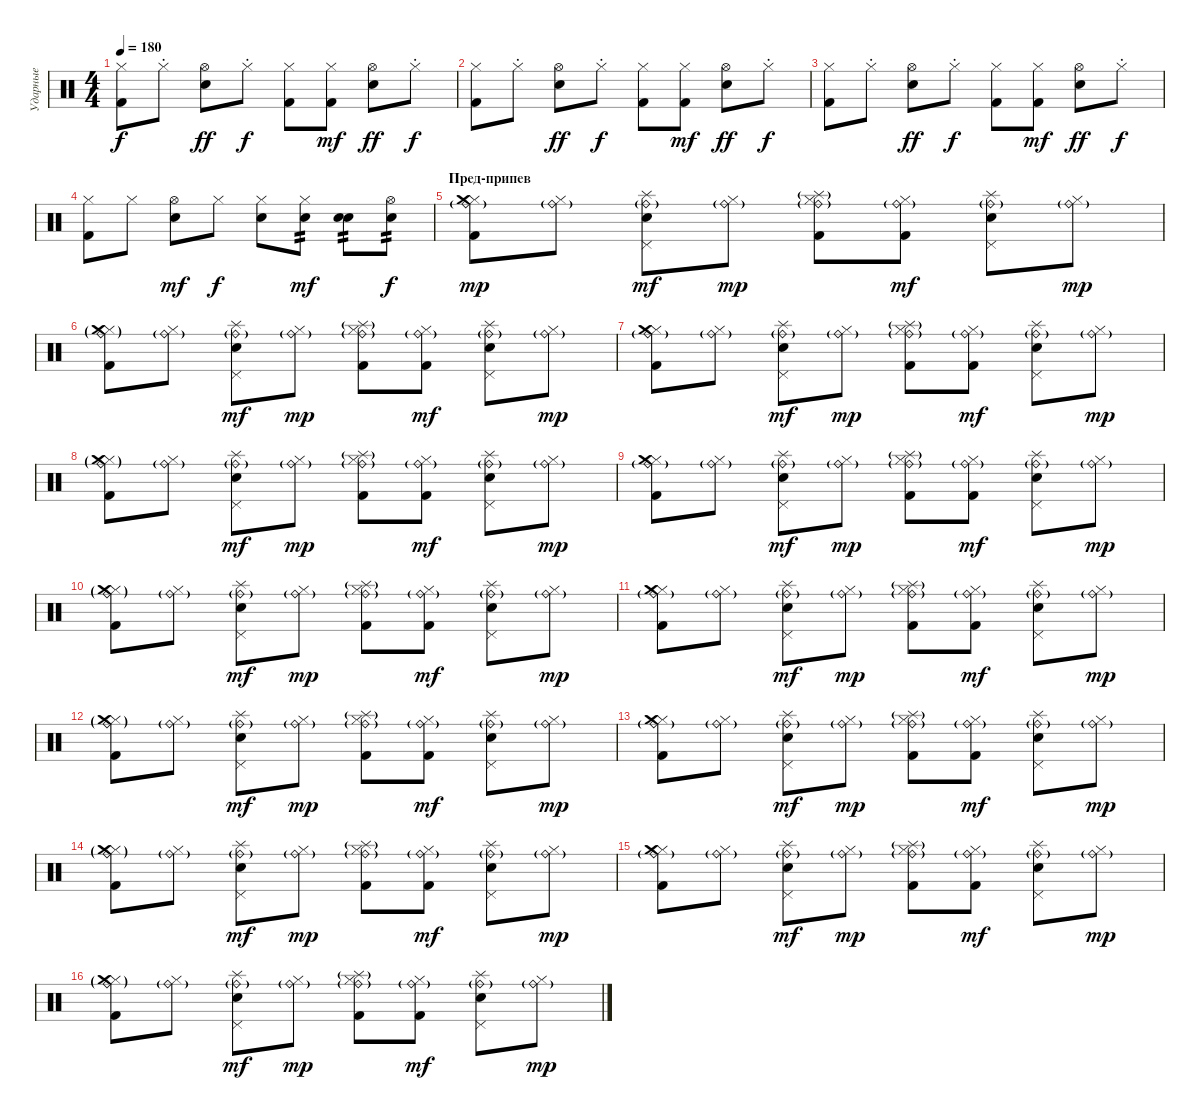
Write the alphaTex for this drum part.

\track ("Ударные" "Ударные") {instrument percussion}
\staff {score}
\articulation defaults
\ts (4 4)
\tempo 180
\clef neutral
\ks c
("Hi-Hat (closed)" "Kick (hit) 2").8{dy f} "Hi-Hat (closed)"{st}.8 ("Hi-Hat (open)" "Snare (hit) 2").8{dy ff} "Hi-Hat (closed)"{st}.8{dy f} ("Hi-Hat (closed)" "Kick (hit) 2").8 ("Hi-Hat (closed)" "Kick (hit) 2").8{dy mf} ("Hi-Hat (open)" "Snare (hit) 2").8{dy ff} "Hi-Hat (closed)"{st}.8{dy f} |
("Hi-Hat (closed)" "Kick (hit) 2").8 "Hi-Hat (closed)"{st}.8 ("Hi-Hat (open)" "Snare (hit) 2").8{dy ff} "Hi-Hat (closed)"{st}.8{dy f} ("Hi-Hat (closed)" "Kick (hit) 2").8 ("Hi-Hat (closed)" "Kick (hit) 2").8{dy mf} ("Hi-Hat (open)" "Snare (hit) 2").8{dy ff} "Hi-Hat (closed)"{st}.8{dy f} |
("Hi-Hat (closed)" "Kick (hit) 2").8 "Hi-Hat (closed)"{st}.8 ("Hi-Hat (open)" "Snare (hit) 2").8{dy ff} "Hi-Hat (closed)"{st}.8{dy f} ("Hi-Hat (closed)" "Kick (hit) 2").8 ("Hi-Hat (closed)" "Kick (hit) 2").8{dy mf} ("Hi-Hat (open)" "Snare (hit) 2").8{dy ff} "Hi-Hat (closed)"{st}.8{dy f} |
("Kick (hit) 2" "Hi-Hat (closed)").8 "Hi-Hat (closed)".8 ("Hi-Hat (open)" "Snare (hit) 2").8{dy mf} "Hi-Hat (closed)".8{dy f} ("Electric Snare (hit)" "Hi-Hat (closed)").8 ("Electric Snare (hit)" "Hi-Hat (closed)").8{tp 2 dy mf} ("Electric Snare (hit)" "Snare (hit) 2").8{tp 2} ("Hi-Hat (open)" "Snare (hit) 2").8{tp 2 dy f} |
\section ("" "Пред-припев")
("Ride (bell)"{g} "Hi-Hat (closed)" "Kick (hit) 2" "Crash medium (hit)").8{dy mp} ("Ride (bell)"{g} "Hi-Hat (closed)").8 ("Ride (bell)"{g} "Snare (hit) 2" "Pedal Hi-Hat (hit)" "Splash (hit)").8{dy mf} ("Ride (bell)"{g} "Hi-Hat (closed)").8{dy mp} ("Ride (bell)"{g} "Hi-Hat (closed)" "Kick (hit) 2" "Splash (hit)"{g}).8 ("Ride (bell)"{g} "Hi-Hat (closed)" "Kick (hit) 2").8{dy mf} ("Ride (bell)"{g} "Pedal Hi-Hat (hit)" "Snare (hit) 2" "Splash (hit)").8 ("Ride (bell)"{g} "Hi-Hat (closed)").8{dy mp} |
("Ride (bell)"{g} "Hi-Hat (closed)" "Kick (hit) 2" "Crash medium (hit)"{g}).8 ("Ride (bell)"{g} "Hi-Hat (closed)").8 ("Ride (bell)"{g} "Snare (hit) 2" "Pedal Hi-Hat (hit)" "Splash (hit)").8{dy mf} ("Ride (bell)"{g} "Hi-Hat (closed)").8{dy mp} ("Ride (bell)"{g} "Hi-Hat (closed)" "Kick (hit) 2" "Splash (hit)"{g}).8 ("Ride (bell)"{g} "Hi-Hat (closed)" "Kick (hit) 2").8{dy mf} ("Ride (bell)"{g} "Pedal Hi-Hat (hit)" "Snare (hit) 2" "Splash (hit)").8 ("Ride (bell)"{g} "Hi-Hat (closed)").8{dy mp} |
("Ride (bell)"{g} "Hi-Hat (closed)" "Kick (hit) 2" "Crash medium (hit)").8 ("Ride (bell)"{g} "Hi-Hat (closed)").8 ("Ride (bell)"{g} "Snare (hit) 2" "Pedal Hi-Hat (hit)" "Splash (hit)").8{dy mf} ("Ride (bell)"{g} "Hi-Hat (closed)").8{dy mp} ("Ride (bell)"{g} "Hi-Hat (closed)" "Kick (hit) 2" "Splash (hit)"{g}).8 ("Ride (bell)"{g} "Hi-Hat (closed)" "Kick (hit) 2").8{dy mf} ("Ride (bell)"{g} "Pedal Hi-Hat (hit)" "Snare (hit) 2" "Splash (hit)").8 ("Ride (bell)"{g} "Hi-Hat (closed)").8{dy mp} |
("Ride (bell)"{g} "Hi-Hat (closed)" "Kick (hit) 2" "Crash medium (hit)"{g}).8 ("Ride (bell)"{g} "Hi-Hat (closed)").8 ("Ride (bell)"{g} "Snare (hit) 2" "Pedal Hi-Hat (hit)" "Splash (hit)").8{dy mf} ("Ride (bell)"{g} "Hi-Hat (closed)").8{dy mp} ("Ride (bell)"{g} "Hi-Hat (closed)" "Kick (hit) 2" "Splash (hit)"{g}).8 ("Ride (bell)"{g} "Hi-Hat (closed)" "Kick (hit) 2").8{dy mf} ("Ride (bell)"{g} "Pedal Hi-Hat (hit)" "Snare (hit) 2" "Splash (hit)").8 ("Ride (bell)"{g} "Hi-Hat (closed)").8{dy mp} |
("Ride (bell)"{g} "Hi-Hat (closed)" "Kick (hit) 2" "Crash medium (hit)").8 ("Ride (bell)"{g} "Hi-Hat (closed)").8 ("Ride (bell)"{g} "Snare (hit) 2" "Pedal Hi-Hat (hit)" "Splash (hit)").8{dy mf} ("Ride (bell)"{g} "Hi-Hat (closed)").8{dy mp} ("Ride (bell)"{g} "Hi-Hat (closed)" "Kick (hit) 2" "Splash (hit)"{g}).8 ("Ride (bell)"{g} "Hi-Hat (closed)" "Kick (hit) 2").8{dy mf} ("Ride (bell)"{g} "Pedal Hi-Hat (hit)" "Snare (hit) 2" "Splash (hit)").8 ("Ride (bell)"{g} "Hi-Hat (closed)").8{dy mp} |
("Ride (bell)"{g} "Hi-Hat (closed)" "Kick (hit) 2" "Crash medium (hit)"{g}).8 ("Ride (bell)"{g} "Hi-Hat (closed)").8 ("Ride (bell)"{g} "Snare (hit) 2" "Pedal Hi-Hat (hit)" "Splash (hit)").8{dy mf} ("Ride (bell)"{g} "Hi-Hat (closed)").8{dy mp} ("Ride (bell)"{g} "Hi-Hat (closed)" "Kick (hit) 2" "Splash (hit)"{g}).8 ("Ride (bell)"{g} "Hi-Hat (closed)" "Kick (hit) 2").8{dy mf} ("Ride (bell)"{g} "Pedal Hi-Hat (hit)" "Snare (hit) 2" "Splash (hit)").8 ("Ride (bell)"{g} "Hi-Hat (closed)").8{dy mp} |
("Ride (bell)"{g} "Hi-Hat (closed)" "Kick (hit) 2" "Crash medium (hit)").8 ("Ride (bell)"{g} "Hi-Hat (closed)").8 ("Ride (bell)"{g} "Snare (hit) 2" "Pedal Hi-Hat (hit)" "Splash (hit)").8{dy mf} ("Ride (bell)"{g} "Hi-Hat (closed)").8{dy mp} ("Ride (bell)"{g} "Hi-Hat (closed)" "Kick (hit) 2" "Splash (hit)"{g}).8 ("Ride (bell)"{g} "Hi-Hat (closed)" "Kick (hit) 2").8{dy mf} ("Ride (bell)"{g} "Pedal Hi-Hat (hit)" "Snare (hit) 2" "Splash (hit)").8 ("Ride (bell)"{g} "Hi-Hat (closed)").8{dy mp} |
("Ride (bell)"{g} "Hi-Hat (closed)" "Kick (hit) 2" "Crash medium (hit)"{g}).8 ("Ride (bell)"{g} "Hi-Hat (closed)").8 ("Ride (bell)"{g} "Snare (hit) 2" "Pedal Hi-Hat (hit)" "Splash (hit)").8{dy mf} ("Ride (bell)"{g} "Hi-Hat (closed)").8{dy mp} ("Ride (bell)"{g} "Hi-Hat (closed)" "Kick (hit) 2" "Splash (hit)"{g}).8 ("Ride (bell)"{g} "Hi-Hat (closed)" "Kick (hit) 2").8{dy mf} ("Ride (bell)"{g} "Pedal Hi-Hat (hit)" "Snare (hit) 2" "Splash (hit)").8 ("Ride (bell)"{g} "Hi-Hat (closed)").8{dy mp} |
("Ride (bell)"{g} "Hi-Hat (closed)" "Kick (hit) 2" "Crash medium (hit)").8 ("Ride (bell)"{g} "Hi-Hat (closed)").8 ("Ride (bell)"{g} "Snare (hit) 2" "Pedal Hi-Hat (hit)" "Splash (hit)").8{dy mf} ("Ride (bell)"{g} "Hi-Hat (closed)").8{dy mp} ("Ride (bell)"{g} "Hi-Hat (closed)" "Kick (hit) 2" "Splash (hit)"{g}).8 ("Ride (bell)"{g} "Hi-Hat (closed)" "Kick (hit) 2").8{dy mf} ("Ride (bell)"{g} "Pedal Hi-Hat (hit)" "Snare (hit) 2" "Splash (hit)").8 ("Ride (bell)"{g} "Hi-Hat (closed)").8{dy mp} |
("Ride (bell)"{g} "Hi-Hat (closed)" "Kick (hit) 2" "Crash medium (hit)"{g}).8 ("Ride (bell)"{g} "Hi-Hat (closed)").8 ("Ride (bell)"{g} "Snare (hit) 2" "Pedal Hi-Hat (hit)" "Splash (hit)").8{dy mf} ("Ride (bell)"{g} "Hi-Hat (closed)").8{dy mp} ("Ride (bell)"{g} "Hi-Hat (closed)" "Kick (hit) 2" "Splash (hit)"{g}).8 ("Ride (bell)"{g} "Hi-Hat (closed)" "Kick (hit) 2").8{dy mf} ("Ride (bell)"{g} "Pedal Hi-Hat (hit)" "Snare (hit) 2" "Splash (hit)").8 ("Ride (bell)"{g} "Hi-Hat (closed)").8{dy mp} |
("Ride (bell)"{g} "Hi-Hat (closed)" "Kick (hit) 2" "Crash medium (hit)").8 ("Ride (bell)"{g} "Hi-Hat (closed)").8 ("Ride (bell)"{g} "Snare (hit) 2" "Pedal Hi-Hat (hit)" "Splash (hit)").8{dy mf} ("Ride (bell)"{g} "Hi-Hat (closed)").8{dy mp} ("Ride (bell)"{g} "Hi-Hat (closed)" "Kick (hit) 2" "Splash (hit)"{g}).8 ("Ride (bell)"{g} "Hi-Hat (closed)" "Kick (hit) 2").8{dy mf} ("Ride (bell)"{g} "Pedal Hi-Hat (hit)" "Snare (hit) 2" "Splash (hit)").8 ("Ride (bell)"{g} "Hi-Hat (closed)").8{dy mp} |
("Ride (bell)"{g} "Hi-Hat (closed)" "Kick (hit) 2" "Crash medium (hit)"{g}).8 ("Ride (bell)"{g} "Hi-Hat (closed)").8 ("Ride (bell)"{g} "Snare (hit) 2" "Pedal Hi-Hat (hit)" "Splash (hit)").8{dy mf} ("Ride (bell)"{g} "Hi-Hat (closed)").8{dy mp} ("Ride (bell)"{g} "Hi-Hat (closed)" "Kick (hit) 2" "Splash (hit)"{g}).8 ("Ride (bell)"{g} "Hi-Hat (closed)" "Kick (hit) 2").8{dy mf} ("Ride (bell)"{g} "Pedal Hi-Hat (hit)" "Snare (hit) 2" "Splash (hit)").8 ("Ride (bell)"{g} "Hi-Hat (closed)").8{dy mp}
